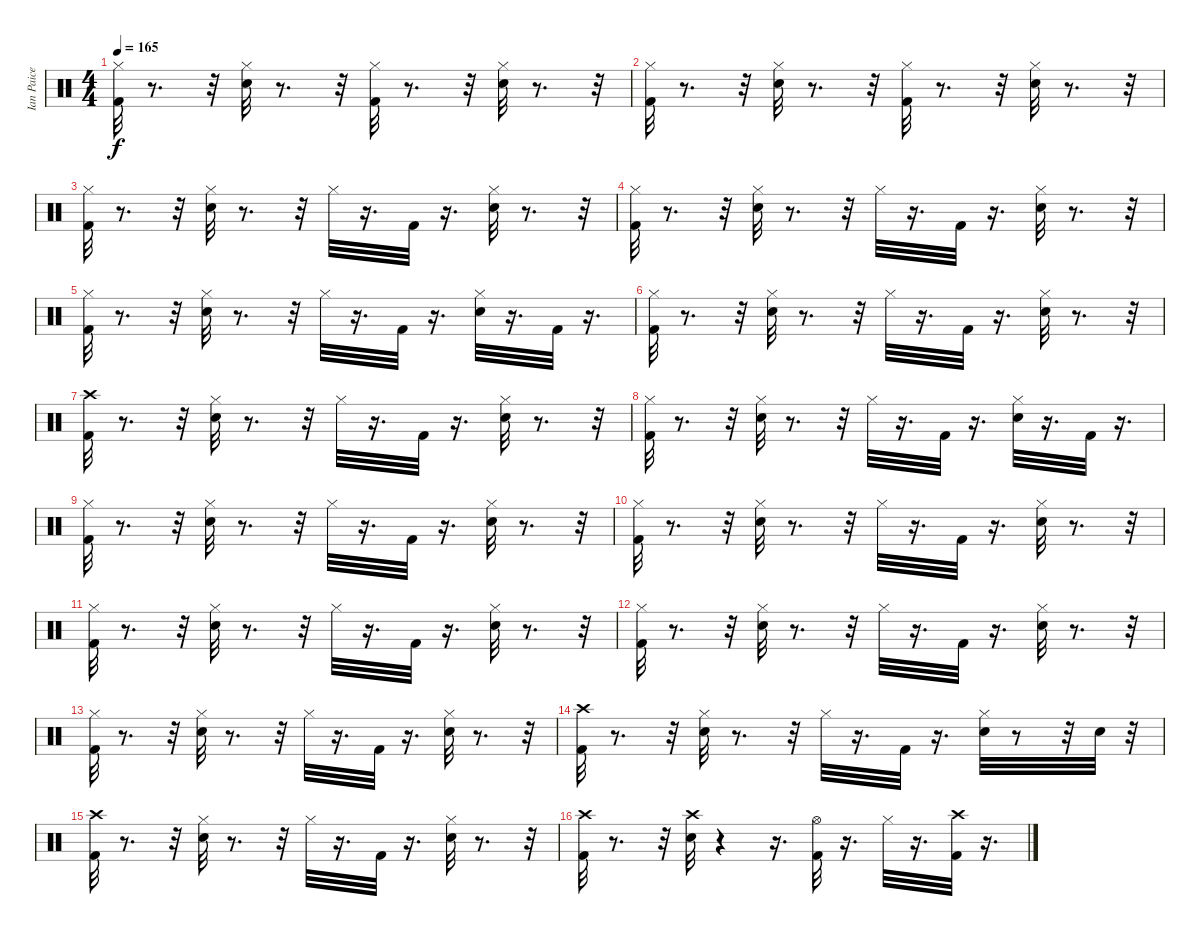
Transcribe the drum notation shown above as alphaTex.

\track ("Ian Paice" "Ian Paice") {instrument percussion}
\staff {score}
\articulation defaults
\ts (4 4)
\tempo 165
\clef neutral
\ks c
("Kick (hit) 2" "Hi-Hat (closed)").32{dy f} r.8{d} r.32 ("Snare (hit) 2" "Hi-Hat (closed)").32 r.8{d} r.32 ("Kick (hit) 2" "Hi-Hat (closed)").32 r.8{d} r.32 ("Snare (hit) 2" "Hi-Hat (closed)").32 r.8{d} r.32 |
("Hi-Hat (closed)" "Kick (hit) 2").32 r.8{d} r.32 ("Hi-Hat (closed)" "Snare (hit) 2").32 r.8{d} r.32 ("Hi-Hat (closed)" "Kick (hit) 2").32 r.8{d} r.32 ("Hi-Hat (closed)" "Snare (hit) 2").32 r.8{d} r.32 |
("Hi-Hat (closed)" "Kick (hit) 2").32 r.8{d} r.32 ("Hi-Hat (closed)" "Snare (hit) 2").32 r.8{d} r.32 "Hi-Hat (closed)".32 r.16{d} "Kick (hit) 2".32 r.16{d} ("Hi-Hat (closed)" "Snare (hit) 2").32 r.8{d} r.32 |
("Hi-Hat (closed)" "Kick (hit) 2").32 r.8{d} r.32 ("Hi-Hat (closed)" "Snare (hit) 2").32 r.8{d} r.32 "Hi-Hat (closed)".32 r.16{d} "Kick (hit) 2".32 r.16{d} ("Hi-Hat (closed)" "Snare (hit) 2").32 r.8{d} r.32 |
("Hi-Hat (closed)" "Kick (hit) 2").32 r.8{d} r.32 ("Hi-Hat (closed)" "Snare (hit) 2").32 r.8{d} r.32 "Hi-Hat (closed)".32 r.16{d} "Kick (hit) 2".32 r.16{d} ("Hi-Hat (closed)" "Snare (hit) 2").32 r.16{d} "Kick (hit) 2".32 r.16{d} |
("Kick (hit) 2" "Hi-Hat (closed)").32 r.8{d} r.32 ("Snare (hit) 2" "Hi-Hat (closed)").32 r.8{d} r.32 "Hi-Hat (closed)".32 r.16{d} "Kick (hit) 2".32 r.16{d} ("Snare (hit) 2" "Hi-Hat (closed)").32 r.8{d} r.32 |
("Crash high (hit)" "Kick (hit) 2").32 r.8{d} r.32 ("Hi-Hat (closed)" "Snare (hit) 2").32 r.8{d} r.32 "Hi-Hat (closed)".32 r.16{d} "Kick (hit) 2".32 r.16{d} ("Hi-Hat (closed)" "Snare (hit) 2").32 r.8{d} r.32 |
("Kick (hit) 2" "Hi-Hat (closed)").32 r.8{d} r.32 ("Snare (hit) 2" "Hi-Hat (closed)").32 r.8{d} r.32 "Hi-Hat (closed)".32 r.16{d} "Kick (hit) 2".32 r.16{d} ("Snare (hit) 2" "Hi-Hat (closed)").32 r.16{d} "Kick (hit) 2".32 r.16{d} |
("Hi-Hat (closed)" "Kick (hit) 2").32 r.8{d} r.32 ("Hi-Hat (closed)" "Snare (hit) 2").32 r.8{d} r.32 "Hi-Hat (closed)".32 r.16{d} "Kick (hit) 2".32 r.16{d} ("Hi-Hat (closed)" "Snare (hit) 2").32 r.8{d} r.32 |
("Hi-Hat (closed)" "Kick (hit) 2").32 r.8{d} r.32 ("Hi-Hat (closed)" "Snare (hit) 2").32 r.8{d} r.32 "Hi-Hat (closed)".32 r.16{d} "Kick (hit) 2".32 r.16{d} ("Hi-Hat (closed)" "Snare (hit) 2").32 r.8{d} r.32 |
("Hi-Hat (closed)" "Kick (hit) 2").32 r.8{d} r.32 ("Hi-Hat (closed)" "Snare (hit) 2").32 r.8{d} r.32 "Hi-Hat (closed)".32 r.16{d} "Kick (hit) 2".32 r.16{d} ("Hi-Hat (closed)" "Snare (hit) 2").32 r.8{d} r.32 |
("Hi-Hat (closed)" "Kick (hit) 2").32 r.8{d} r.32 ("Hi-Hat (closed)" "Snare (hit) 2").32 r.8{d} r.32 "Hi-Hat (closed)".32 r.16{d} "Kick (hit) 2".32 r.16{d} ("Hi-Hat (closed)" "Snare (hit) 2").32 r.8{d} r.32 |
("Hi-Hat (closed)" "Kick (hit) 2").32 r.8{d} r.32 ("Hi-Hat (closed)" "Snare (hit) 2").32 r.8{d} r.32 "Hi-Hat (closed)".32 r.16{d} "Kick (hit) 2".32 r.16{d} ("Hi-Hat (closed)" "Snare (hit) 2").32 r.8{d} r.32 |
("Crash high (hit)" "Kick (hit) 2").32 r.8{d} r.32 ("Snare (hit) 2" "Hi-Hat (closed)").32 r.8{d} r.32 "Hi-Hat (closed)".32 r.16{d} "Kick (hit) 2".32 r.16{d} ("Snare (hit) 2" "Hi-Hat (closed)").32 r.8 r.32 "Snare (hit) 2".32 r.32 |
("Kick (hit) 2" "Crash high (hit)").32 r.8{d} r.32 ("Hi-Hat (closed)" "Snare (hit) 2").32 r.8{d} r.32 "Hi-Hat (closed)".32 r.16{d} "Kick (hit) 2".32 r.16{d} ("Hi-Hat (closed)" "Snare (hit) 2").32 r.8{d} r.32 |
("Crash high (hit)" "Kick (hit) 2").32 r.8{d} r.32 ("Snare (hit) 2" "Crash high (hit)").32 r.4 r.16{d} ("Hi-Hat (open)" "Kick (hit) 2").32 r.16{d} "Hi-Hat (closed)".32 r.16{d} ("Crash high (hit)" "Kick (hit) 2").32 r.16{d}
